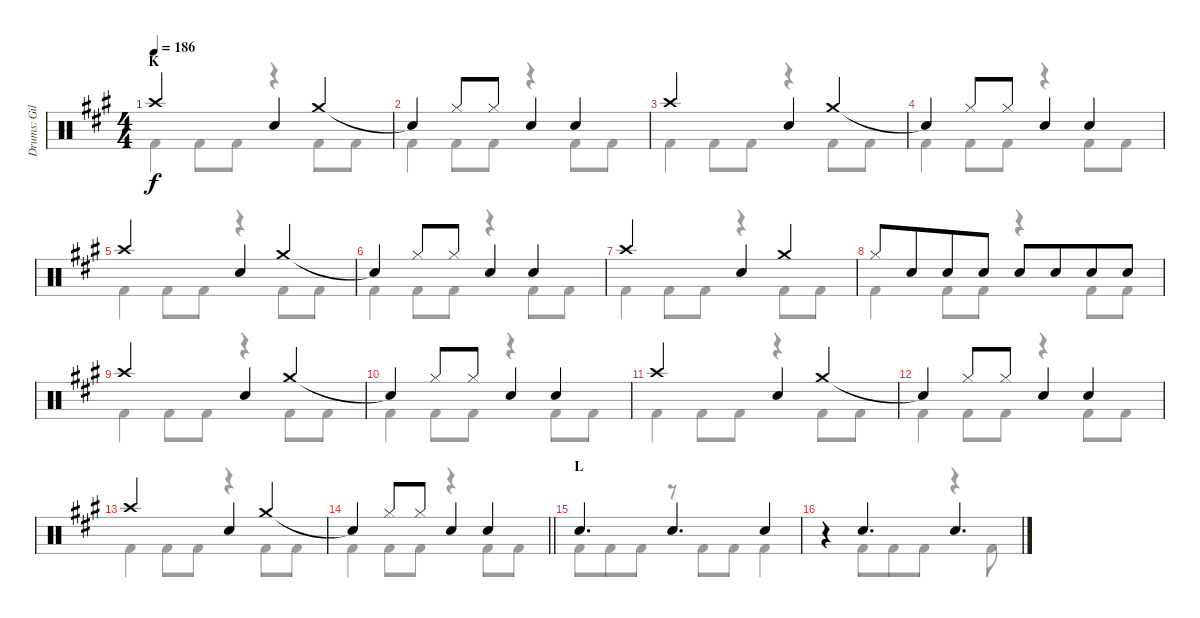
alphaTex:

\track ("Drums: Gil" "Drums: Gil") {instrument percussion}
\staff {score}
\articulation defaults
\voice
\ts (4 4)
\section ("" "K")
\tempo 186
\clef neutral
\ks a "Crash high (hit)".2{dy f} "Snare (hit) 2".4 "Crash medium (hit)".4
|
"Snare (hit)"{t}.4 "Hi-Hat (closed)".8 "Hi-Hat (closed)".8 "Snare (hit) 2".4 "Snare (hit) 2".4 |
"Crash high (hit)".2 "Snare (hit) 2".4 "Crash medium (hit)".4 |
"Snare (hit)"{t}.4 "Hi-Hat (closed)".8 "Hi-Hat (closed)".8 "Snare (hit) 2".4 "Snare (hit) 2".4 |
"Crash high (hit)".2 "Snare (hit) 2".4 "Crash medium (hit)".4 |
"Snare (hit)"{t}.4 "Hi-Hat (closed)".8 "Hi-Hat (closed)".8 "Snare (hit) 2".4 "Snare (hit) 2".4 |
"Crash high (hit)".2 "Snare (hit) 2".4 "Crash medium (hit)".4 |
"Hi-Hat (closed)".8 "Snare (hit) 2".8{beam merge} "Snare (hit) 2".8 "Snare (hit) 2".8{beam split} "Snare (hit) 2".8 "Snare (hit) 2".8{beam merge} "Snare (hit) 2".8 "Snare (hit) 2".8 |
"Crash high (hit)".2 "Snare (hit) 2".4 "Crash medium (hit)".4 |
"Snare (hit)"{t}.4 "Hi-Hat (closed)".8 "Hi-Hat (closed)".8 "Snare (hit) 2".4 "Snare (hit) 2".4 |
"Crash high (hit)".2 "Snare (hit) 2".4 "Crash medium (hit)".4 |
"Snare (hit)"{t}.4 "Hi-Hat (closed)".8 "Hi-Hat (closed)".8 "Snare (hit) 2".4 "Snare (hit) 2".4 |
"Crash high (hit)".2 "Snare (hit) 2".4 "Crash medium (hit)".4 |
\barLineRight lightlight "Snare (hit)"{t}.4 "Hi-Hat (closed)".8 "Hi-Hat (closed)".8 "Snare (hit) 2".4 "Snare (hit) 2".4
|
\section ("" "L")
"Snare (hit) 2".4{d} "Snare (hit) 2".4{d} "Snare (hit) 2".4 |
r.4 "Snare (hit) 2".4{d} "Snare (hit) 2".4{d}
\voice
\clef neutral
\ottava regular
\simile none
\ks a "Kick (hit) 2".4{dy f} "Kick (hit) 2".8 "Kick (hit) 2".8
r.4 "Kick (hit) 2".8 "Kick (hit) 2".8 |
"Kick (hit) 2".4 "Kick (hit) 2".8 "Kick (hit) 2".8 r.4 "Kick (hit) 2".8 "Kick (hit) 2".8 |
"Kick (hit) 2".4 "Kick (hit) 2".8 "Kick (hit) 2".8 r.4 "Kick (hit) 2".8 "Kick (hit) 2".8 |
"Kick (hit) 2".4 "Kick (hit) 2".8 "Kick (hit) 2".8 r.4 "Kick (hit) 2".8 "Kick (hit) 2".8 |
"Kick (hit) 2".4 "Kick (hit) 2".8 "Kick (hit) 2".8 r.4 "Kick (hit) 2".8 "Kick (hit) 2".8 |
"Kick (hit) 2".4 "Kick (hit) 2".8 "Kick (hit) 2".8 r.4 "Kick (hit) 2".8 "Kick (hit) 2".8 |
"Kick (hit) 2".4 "Kick (hit) 2".8 "Kick (hit) 2".8 r.4 "Kick (hit) 2".8 "Kick (hit) 2".8 |
"Kick (hit) 2".4 "Kick (hit) 2".8 "Kick (hit) 2".8 r.4 "Kick (hit) 2".8 "Kick (hit) 2".8 |
"Kick (hit) 2".4 "Kick (hit) 2".8 "Kick (hit) 2".8 r.4 "Kick (hit) 2".8 "Kick (hit) 2".8 |
"Kick (hit) 2".4 "Kick (hit) 2".8 "Kick (hit) 2".8 r.4 "Kick (hit) 2".8 "Kick (hit) 2".8 |
"Kick (hit) 2".4 "Kick (hit) 2".8 "Kick (hit) 2".8 r.4 "Kick (hit) 2".8 "Kick (hit) 2".8 |
"Kick (hit) 2".4 "Kick (hit) 2".8 "Kick (hit) 2".8 r.4 "Kick (hit) 2".8 "Kick (hit) 2".8 |
"Kick (hit) 2".4 "Kick (hit) 2".8 "Kick (hit) 2".8 r.4 "Kick (hit) 2".8 "Kick (hit) 2".8 |
\barLineRight lightlight "Kick (hit) 2".4 "Kick (hit) 2".8 "Kick (hit) 2".8
r.4 "Kick (hit) 2".8 "Kick (hit) 2".8 |
"Kick (hit) 2".8 "Kick (hit) 2".8{beam merge} "Kick (hit) 2".8 r.8 "Kick (hit) 2".8 "Kick (hit) 2".8{beam merge} "Kick (hit) 2".4 |
r.4{beam merge} "Kick (hit) 2".8{beam merge} "Kick (hit) 2".8{beam merge} "Kick (hit) 2".8 r.4{beam merge} "Kick (hit) 2".8
